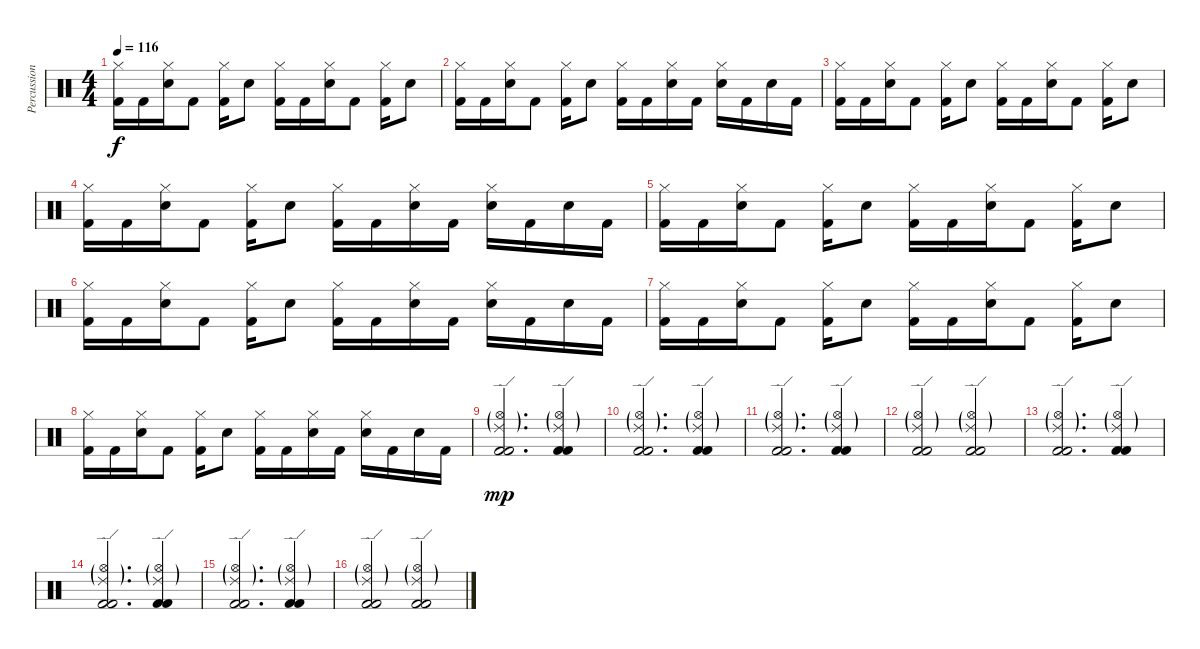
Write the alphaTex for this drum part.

\track ("Percussion" "Percussion") {instrument percussion}
\staff {score}
\articulation defaults
\ts (4 4)
\tempo 116
\clef neutral
\ks c
("Hi-Hat (closed)" "Kick (hit) 2").16{dy f} "Kick (hit) 2".16 ("Hi-Hat (closed)" "Snare (hit) 2").16 "Kick (hit) 2".8 ("Hi-Hat (closed)" "Kick (hit) 2").16 "Snare (hit) 2".8 ("Hi-Hat (closed)" "Kick (hit) 2").16 "Kick (hit) 2".16 ("Hi-Hat (closed)" "Snare (hit) 2").16 "Kick (hit) 2".8 ("Hi-Hat (closed)" "Kick (hit) 2").16 "Snare (hit) 2".8 |
("Hi-Hat (closed)" "Kick (hit) 2").16 "Kick (hit) 2".16 ("Hi-Hat (closed)" "Snare (hit) 2").16 "Kick (hit) 2".8 ("Hi-Hat (closed)" "Kick (hit) 2").16 "Snare (hit) 2".8 ("Hi-Hat (closed)" "Kick (hit) 2").16 "Kick (hit) 2".16 ("Hi-Hat (closed)" "Snare (hit) 2").16 "Kick (hit) 2".16 ("Hi-Hat (closed)" "Snare (hit) 2").16 "Kick (hit) 2".16 "Snare (hit) 2".16 "Kick (hit) 2".16 |
("Hi-Hat (closed)" "Kick (hit) 2").16 "Kick (hit) 2".16 ("Hi-Hat (closed)" "Snare (hit) 2").16 "Kick (hit) 2".8 ("Hi-Hat (closed)" "Kick (hit) 2").16 "Snare (hit) 2".8 ("Hi-Hat (closed)" "Kick (hit) 2").16 "Kick (hit) 2".16 ("Hi-Hat (closed)" "Snare (hit) 2").16 "Kick (hit) 2".8 ("Hi-Hat (closed)" "Kick (hit) 2").16 "Snare (hit) 2".8 |
("Hi-Hat (closed)" "Kick (hit) 2").16 "Kick (hit) 2".16 ("Hi-Hat (closed)" "Snare (hit) 2").16 "Kick (hit) 2".8 ("Hi-Hat (closed)" "Kick (hit) 2").16 "Snare (hit) 2".8 ("Hi-Hat (closed)" "Kick (hit) 2").16 "Kick (hit) 2".16 ("Hi-Hat (closed)" "Snare (hit) 2").16 "Kick (hit) 2".16 ("Hi-Hat (closed)" "Snare (hit) 2").16 "Kick (hit) 2".16 "Snare (hit) 2".16 "Kick (hit) 2".16 |
("Hi-Hat (closed)" "Kick (hit) 2").16 "Kick (hit) 2".16 ("Hi-Hat (closed)" "Snare (hit) 2").16 "Kick (hit) 2".8 ("Hi-Hat (closed)" "Kick (hit) 2").16 "Snare (hit) 2".8 ("Hi-Hat (closed)" "Kick (hit) 2").16 "Kick (hit) 2".16 ("Hi-Hat (closed)" "Snare (hit) 2").16 "Kick (hit) 2".8 ("Hi-Hat (closed)" "Kick (hit) 2").16 "Snare (hit) 2".8 |
("Hi-Hat (closed)" "Kick (hit) 2").16 "Kick (hit) 2".16 ("Hi-Hat (closed)" "Snare (hit) 2").16 "Kick (hit) 2".8 ("Hi-Hat (closed)" "Kick (hit) 2").16 "Snare (hit) 2".8 ("Hi-Hat (closed)" "Kick (hit) 2").16 "Kick (hit) 2".16 ("Hi-Hat (closed)" "Snare (hit) 2").16 "Kick (hit) 2".16 ("Hi-Hat (closed)" "Snare (hit) 2").16 "Kick (hit) 2".16 "Snare (hit) 2".16 "Kick (hit) 2".16 |
("Hi-Hat (closed)" "Kick (hit) 2").16 "Kick (hit) 2".16 ("Hi-Hat (closed)" "Snare (hit) 2").16 "Kick (hit) 2".8 ("Hi-Hat (closed)" "Kick (hit) 2").16 "Snare (hit) 2".8 ("Hi-Hat (closed)" "Kick (hit) 2").16 "Kick (hit) 2".16 ("Hi-Hat (closed)" "Snare (hit) 2").16 "Kick (hit) 2".8 ("Hi-Hat (closed)" "Kick (hit) 2").16 "Snare (hit) 2".8 |
("Hi-Hat (closed)" "Kick (hit) 2").16 "Kick (hit) 2".16 ("Hi-Hat (closed)" "Snare (hit) 2").16 "Kick (hit) 2".8 ("Hi-Hat (closed)" "Kick (hit) 2").16 "Snare (hit) 2".8 ("Hi-Hat (closed)" "Kick (hit) 2").16 "Kick (hit) 2".16 ("Hi-Hat (closed)" "Snare (hit) 2").16 "Kick (hit) 2".16 ("Hi-Hat (closed)" "Snare (hit) 2").16 "Kick (hit) 2".16 "Snare (hit) 2".16 "Kick (hit) 2".16 |
("Hi-Hat (open)"{g} "Ride (edge) 2"{g} "Kick (hit) 2" "Kick (hit) 2").2{d dy mp} ("Hi-Hat (open)"{g} "Ride (edge) 2"{g} "Kick (hit) 2" "Kick (hit) 2").4 |
("Hi-Hat (open)"{g} "Ride (edge) 2"{g} "Kick (hit) 2" "Kick (hit) 2").2{d} ("Hi-Hat (open)"{g} "Ride (edge) 2"{g} "Kick (hit) 2" "Kick (hit) 2").4 |
("Hi-Hat (open)"{g} "Ride (edge) 2"{g} "Kick (hit) 2" "Kick (hit) 2").2{d} ("Hi-Hat (open)"{g} "Ride (edge) 2"{g} "Kick (hit) 2" "Kick (hit) 2").4 |
("Hi-Hat (open)"{g} "Ride (edge) 2"{g} "Kick (hit) 2" "Kick (hit) 2").2 ("Hi-Hat (open)"{g} "Ride (edge) 2"{g} "Kick (hit) 2" "Kick (hit) 2").2 |
("Hi-Hat (open)"{g} "Ride (edge) 2"{g} "Kick (hit) 2" "Kick (hit) 2").2{d} ("Hi-Hat (open)"{g} "Ride (edge) 2"{g} "Kick (hit) 2" "Kick (hit) 2").4 |
("Hi-Hat (open)"{g} "Ride (edge) 2"{g} "Kick (hit) 2" "Kick (hit) 2").2{d} ("Hi-Hat (open)"{g} "Ride (edge) 2"{g} "Kick (hit) 2" "Kick (hit) 2").4 |
("Hi-Hat (open)"{g} "Ride (edge) 2"{g} "Kick (hit) 2" "Kick (hit) 2").2{d} ("Hi-Hat (open)"{g} "Ride (edge) 2"{g} "Kick (hit) 2" "Kick (hit) 2").4 |
("Hi-Hat (open)"{g} "Ride (edge) 2"{g} "Kick (hit) 2" "Kick (hit) 2").2 ("Hi-Hat (open)"{g} "Ride (edge) 2"{g} "Kick (hit) 2" "Kick (hit) 2").2
